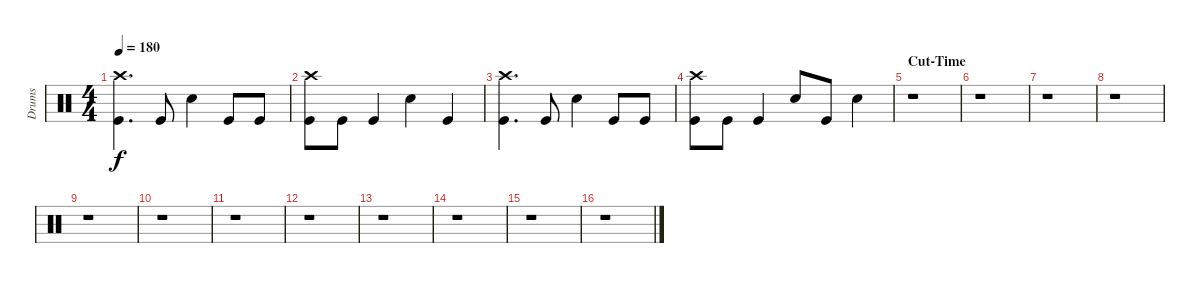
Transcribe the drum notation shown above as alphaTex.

\track ("Drums" "Drums") {instrument percussion}
\staff {score}
\articulation defaults
\ts (4 4)
\tempo 180
\clef neutral
\ks c
("Crash high (hit)" "Kick (hit)").4{d dy f} "Kick (hit)".8 "Snare (hit) 2".4 "Kick (hit)".8 "Kick (hit)".8 |
("Crash high (hit)" "Kick (hit)").8 "Kick (hit)".8 "Kick (hit)".4 "Snare (hit) 2".4 "Kick (hit)".4 |
("Crash high (hit)" "Kick (hit)").4{d} "Kick (hit)".8 "Snare (hit) 2".4 "Kick (hit)".8 "Kick (hit)".8 |
("Crash high (hit)" "Kick (hit)").8 "Kick (hit)".8 "Kick (hit)".4 "Snare (hit) 2".8 "Kick (hit)".8 "Snare (hit) 2".4 |
\section ("" "Cut-Time")
r.1 |
r.1 |
r.1 |
r.1 |
r.1 |
r.1 |
r.1 |
r.1 |
r.1 |
r.1 |
r.1 |
r.1
